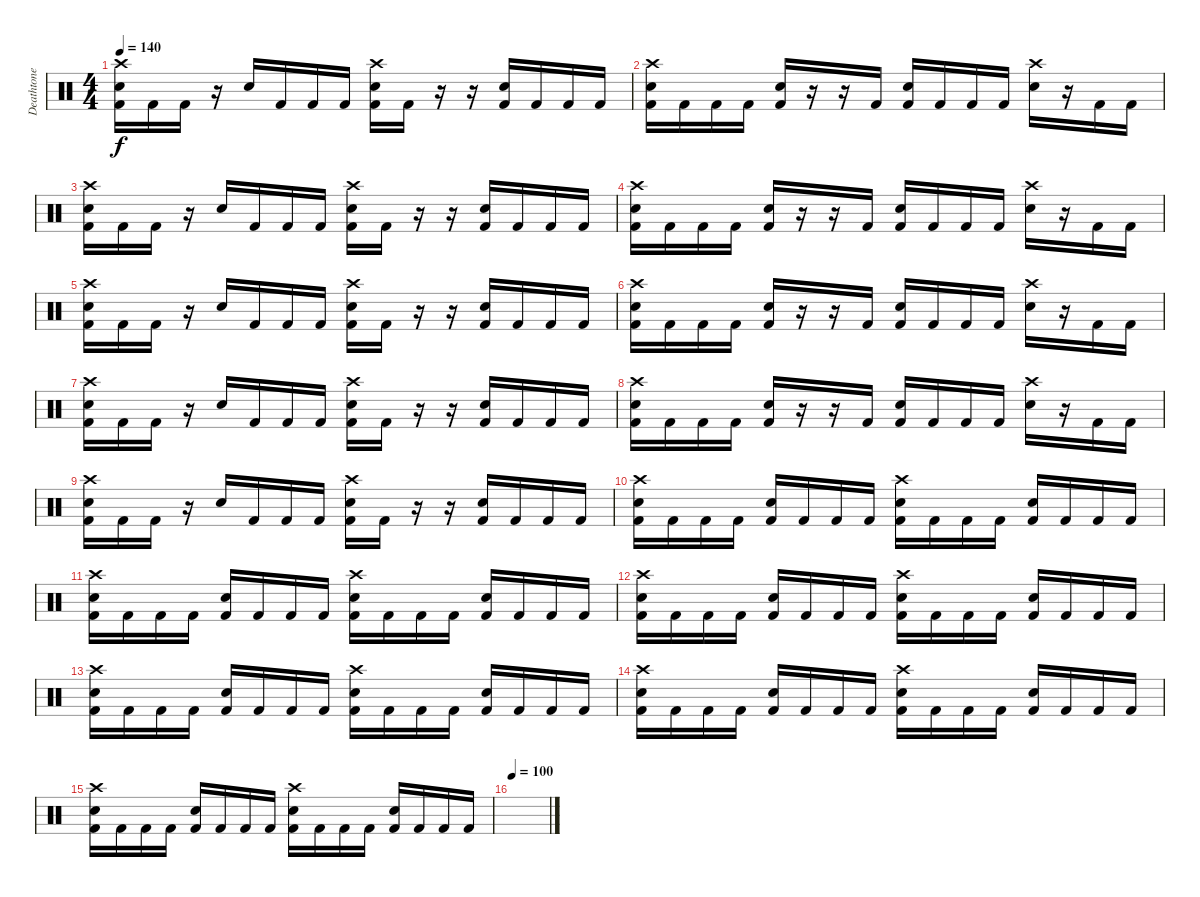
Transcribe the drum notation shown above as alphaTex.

\track ("Deathtone" "Deathtone") {instrument percussion}
\staff {score}
\articulation defaults
\ts (4 4)
\tempo 140
\clef neutral
\ks c
("Crash high (hit)" "Snare (hit) 2" "Kick (hit) 2").16{dy f} "Kick (hit) 2".16 "Kick (hit) 2".16 r.16 "Snare (hit) 2".16 "Kick (hit) 2".16 "Kick (hit) 2".16 "Kick (hit) 2".16 ("Crash high (hit)" "Snare (hit) 2" "Kick (hit) 2").16 "Kick (hit) 2".16 r.16 r.16 ("Snare (hit) 2" "Kick (hit) 2").16 "Kick (hit) 2".16 "Kick (hit) 2".16 "Kick (hit) 2".16 |
("Crash high (hit)" "Snare (hit) 2" "Kick (hit) 2").16 "Kick (hit) 2".16 "Kick (hit) 2".16 "Kick (hit) 2".16 ("Snare (hit) 2" "Kick (hit) 2").16 r.16 r.16 "Kick (hit) 2".16 ("Snare (hit) 2" "Kick (hit) 2").16 "Kick (hit) 2".16 "Kick (hit) 2".16 "Kick (hit) 2".16 ("Crash high (hit)" "Snare (hit) 2").16 r.16 "Kick (hit) 2".16 "Kick (hit) 2".16 |
("Crash high (hit)" "Snare (hit) 2" "Kick (hit) 2").16 "Kick (hit) 2".16 "Kick (hit) 2".16 r.16 "Snare (hit) 2".16 "Kick (hit) 2".16 "Kick (hit) 2".16 "Kick (hit) 2".16 ("Crash high (hit)" "Snare (hit) 2" "Kick (hit) 2").16 "Kick (hit) 2".16 r.16 r.16 ("Snare (hit) 2" "Kick (hit) 2").16 "Kick (hit) 2".16 "Kick (hit) 2".16 "Kick (hit) 2".16 |
("Crash high (hit)" "Snare (hit) 2" "Kick (hit) 2").16 "Kick (hit) 2".16 "Kick (hit) 2".16 "Kick (hit) 2".16 ("Snare (hit) 2" "Kick (hit) 2").16 r.16 r.16 "Kick (hit) 2".16 ("Snare (hit) 2" "Kick (hit) 2").16 "Kick (hit) 2".16 "Kick (hit) 2".16 "Kick (hit) 2".16 ("Crash high (hit)" "Snare (hit) 2").16 r.16 "Kick (hit) 2".16 "Kick (hit) 2".16 |
("Crash high (hit)" "Snare (hit) 2" "Kick (hit) 2").16 "Kick (hit) 2".16 "Kick (hit) 2".16 r.16 "Snare (hit) 2".16 "Kick (hit) 2".16 "Kick (hit) 2".16 "Kick (hit) 2".16 ("Crash high (hit)" "Snare (hit) 2" "Kick (hit) 2").16 "Kick (hit) 2".16 r.16 r.16 ("Snare (hit) 2" "Kick (hit) 2").16 "Kick (hit) 2".16 "Kick (hit) 2".16 "Kick (hit) 2".16 |
("Crash high (hit)" "Snare (hit) 2" "Kick (hit) 2").16 "Kick (hit) 2".16 "Kick (hit) 2".16 "Kick (hit) 2".16 ("Snare (hit) 2" "Kick (hit) 2").16 r.16 r.16 "Kick (hit) 2".16 ("Snare (hit) 2" "Kick (hit) 2").16 "Kick (hit) 2".16 "Kick (hit) 2".16 "Kick (hit) 2".16 ("Crash high (hit)" "Snare (hit) 2").16 r.16 "Kick (hit) 2".16 "Kick (hit) 2".16 |
("Crash high (hit)" "Snare (hit) 2" "Kick (hit) 2").16 "Kick (hit) 2".16 "Kick (hit) 2".16 r.16 "Snare (hit) 2".16 "Kick (hit) 2".16 "Kick (hit) 2".16 "Kick (hit) 2".16 ("Crash high (hit)" "Snare (hit) 2" "Kick (hit) 2").16 "Kick (hit) 2".16 r.16 r.16 ("Snare (hit) 2" "Kick (hit) 2").16 "Kick (hit) 2".16 "Kick (hit) 2".16 "Kick (hit) 2".16 |
("Crash high (hit)" "Snare (hit) 2" "Kick (hit) 2").16 "Kick (hit) 2".16 "Kick (hit) 2".16 "Kick (hit) 2".16 ("Snare (hit) 2" "Kick (hit) 2").16 r.16 r.16 "Kick (hit) 2".16 ("Snare (hit) 2" "Kick (hit) 2").16 "Kick (hit) 2".16 "Kick (hit) 2".16 "Kick (hit) 2".16 ("Crash high (hit)" "Snare (hit) 2").16 r.16 "Kick (hit) 2".16 "Kick (hit) 2".16 |
("Crash high (hit)" "Snare (hit) 2" "Kick (hit) 2").16 "Kick (hit) 2".16 "Kick (hit) 2".16 r.16 "Snare (hit) 2".16 "Kick (hit) 2".16 "Kick (hit) 2".16 "Kick (hit) 2".16 ("Crash high (hit)" "Snare (hit) 2" "Kick (hit) 2").16 "Kick (hit) 2".16 r.16 r.16 ("Snare (hit) 2" "Kick (hit) 2").16 "Kick (hit) 2".16 "Kick (hit) 2".16 "Kick (hit) 2".16 |
("Crash high (hit)" "Snare (hit) 2" "Kick (hit) 2").16 "Kick (hit) 2".16 "Kick (hit) 2".16 "Kick (hit) 2".16 ("Snare (hit) 2" "Kick (hit) 2").16 "Kick (hit) 2".16 "Kick (hit) 2".16 "Kick (hit) 2".16 ("Crash high (hit)" "Snare (hit) 2" "Kick (hit) 2").16 "Kick (hit) 2".16 "Kick (hit) 2".16 "Kick (hit) 2".16 ("Snare (hit) 2" "Kick (hit) 2").16 "Kick (hit) 2".16 "Kick (hit) 2".16 "Kick (hit) 2".16 |
("Crash high (hit)" "Snare (hit) 2" "Kick (hit) 2").16 "Kick (hit) 2".16 "Kick (hit) 2".16 "Kick (hit) 2".16 ("Snare (hit) 2" "Kick (hit) 2").16 "Kick (hit) 2".16 "Kick (hit) 2".16 "Kick (hit) 2".16 ("Crash high (hit)" "Snare (hit) 2" "Kick (hit) 2").16 "Kick (hit) 2".16 "Kick (hit) 2".16 "Kick (hit) 2".16 ("Snare (hit) 2" "Kick (hit) 2").16 "Kick (hit) 2".16 "Kick (hit) 2".16 "Kick (hit) 2".16 |
("Crash high (hit)" "Snare (hit) 2" "Kick (hit) 2").16 "Kick (hit) 2".16 "Kick (hit) 2".16 "Kick (hit) 2".16 ("Snare (hit) 2" "Kick (hit) 2").16 "Kick (hit) 2".16 "Kick (hit) 2".16 "Kick (hit) 2".16 ("Crash high (hit)" "Snare (hit) 2" "Kick (hit) 2").16 "Kick (hit) 2".16 "Kick (hit) 2".16 "Kick (hit) 2".16 ("Snare (hit) 2" "Kick (hit) 2").16 "Kick (hit) 2".16 "Kick (hit) 2".16 "Kick (hit) 2".16 |
("Crash high (hit)" "Snare (hit) 2" "Kick (hit) 2").16 "Kick (hit) 2".16 "Kick (hit) 2".16 "Kick (hit) 2".16 ("Snare (hit) 2" "Kick (hit) 2").16 "Kick (hit) 2".16 "Kick (hit) 2".16 "Kick (hit) 2".16 ("Crash high (hit)" "Snare (hit) 2" "Kick (hit) 2").16 "Kick (hit) 2".16 "Kick (hit) 2".16 "Kick (hit) 2".16 ("Snare (hit) 2" "Kick (hit) 2").16 "Kick (hit) 2".16 "Kick (hit) 2".16 "Kick (hit) 2".16 |
("Crash high (hit)" "Snare (hit) 2" "Kick (hit) 2").16 "Kick (hit) 2".16 "Kick (hit) 2".16 "Kick (hit) 2".16 ("Snare (hit) 2" "Kick (hit) 2").16 "Kick (hit) 2".16 "Kick (hit) 2".16 "Kick (hit) 2".16 ("Crash high (hit)" "Snare (hit) 2" "Kick (hit) 2").16 "Kick (hit) 2".16 "Kick (hit) 2".16 "Kick (hit) 2".16 ("Snare (hit) 2" "Kick (hit) 2").16 "Kick (hit) 2".16 "Kick (hit) 2".16 "Kick (hit) 2".16 |
("Crash high (hit)" "Snare (hit) 2" "Kick (hit) 2").16 "Kick (hit) 2".16 "Kick (hit) 2".16 "Kick (hit) 2".16 ("Snare (hit) 2" "Kick (hit) 2").16 "Kick (hit) 2".16 "Kick (hit) 2".16 "Kick (hit) 2".16 ("Crash high (hit)" "Snare (hit) 2" "Kick (hit) 2").16 "Kick (hit) 2".16 "Kick (hit) 2".16 "Kick (hit) 2".16 ("Snare (hit) 2" "Kick (hit) 2").16 "Kick (hit) 2".16 "Kick (hit) 2".16 "Kick (hit) 2".16 |
\tempo 100
